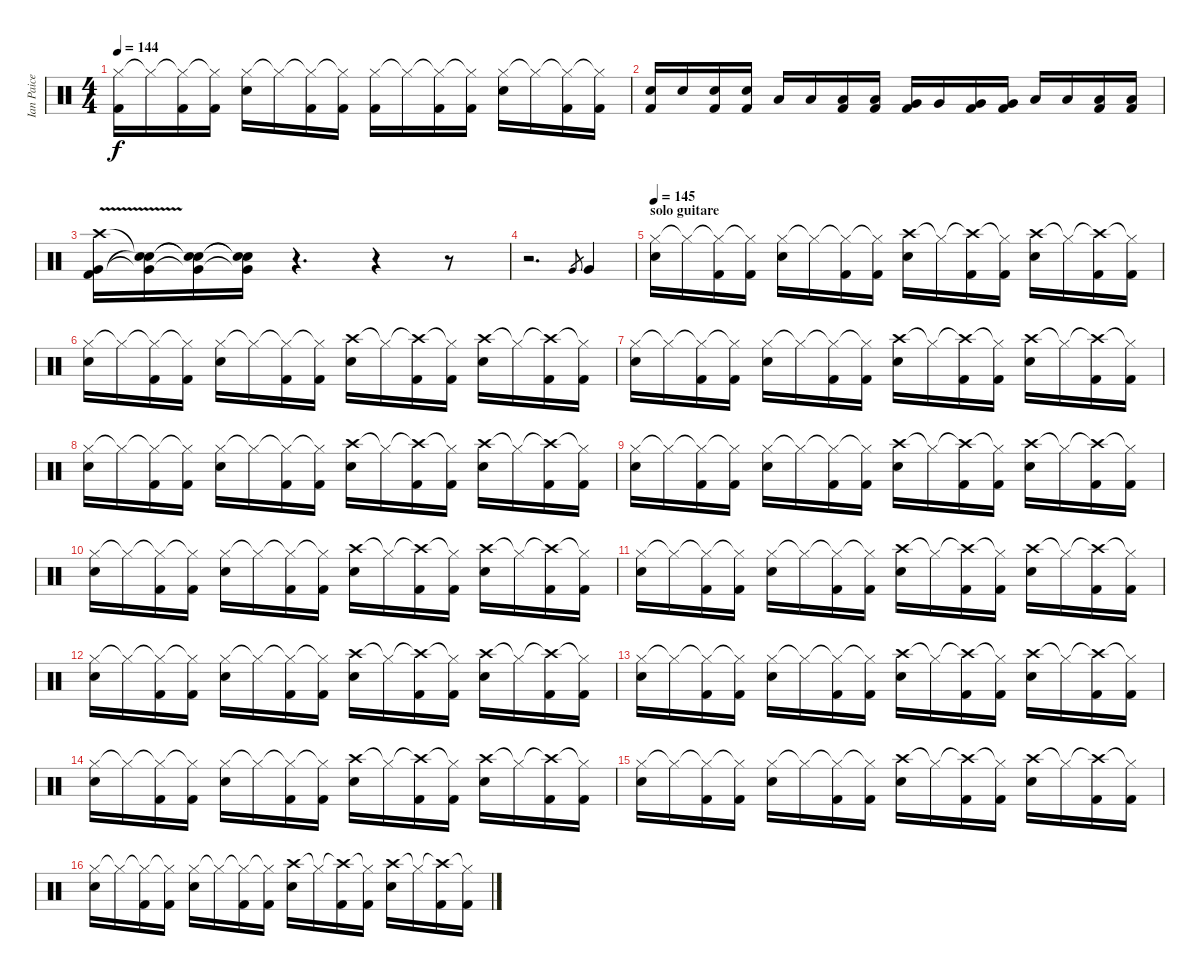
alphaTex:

\track ("Ian Paice" "Ian Paice") {instrument percussion}
\staff {score}
\articulation defaults
\ts (4 4)
\tempo 144
\clef neutral
\ks c
("Hi-Hat (closed)" "Kick (hit) 2").16{dy f} "Hi-Hat (closed)"{t}.16 ("Hi-Hat (closed)"{t} "Kick (hit) 2").16 ("Hi-Hat (closed)"{t} "Kick (hit) 2").16 ("Hi-Hat (closed)" "Snare (hit) 2").16 "Hi-Hat (closed)"{t}.16 ("Hi-Hat (closed)"{t} "Kick (hit) 2").16 ("Hi-Hat (closed)"{t} "Kick (hit) 2").16 ("Hi-Hat (closed)" "Kick (hit) 2").16 "Hi-Hat (closed)"{t}.16 ("Hi-Hat (closed)"{t} "Kick (hit) 2").16 ("Hi-Hat (closed)"{t} "Kick (hit) 2").16 ("Hi-Hat (closed)" "Snare (hit) 2").16 "Hi-Hat (closed)"{t}.16 ("Hi-Hat (closed)"{t} "Kick (hit) 2").16 ("Hi-Hat (closed)"{t} "Kick (hit) 2").16 |
("Snare (hit) 2" "Kick (hit) 2").16 "Snare (hit) 2".16 ("Snare (hit) 2" "Kick (hit) 2").16 ("Snare (hit) 2" "Kick (hit) 2").16 "Low Tom (hit)".16 "Low Tom (hit)".16 ("Low Tom (hit)" "Kick (hit) 2").16 ("Low Tom (hit)" "Kick (hit) 2").16 ("Very Low Tom (hit)" "Kick (hit) 2").16 "Very Low Tom (hit)".16 ("Very Low Tom (hit)" "Kick (hit) 2").16 ("Very Low Tom (hit)" "Kick (hit) 2").16 "Low Floor Tom (hit)".16 "Low Floor Tom (hit)".16 ("Low Floor Tom (hit)" "Kick (hit) 2").16 ("Low Floor Tom (hit)" "Kick (hit) 2").16 |
("Crash high (hit)"{v} "Very Low Tom (hit)"{v} "Kick (hit) 2").16 ("Snare (hit)"{t} "Very Low Tom (hit)"{t} "Snare (hit)"{t}).16 ("Snare (hit)"{t} "Very Low Tom (hit)"{t} "Snare (hit)"{t}).16 ("Snare (hit)"{t} "Very Low Tom (hit)"{t} "Snare (hit)"{t}).16 r.4{d} r.4 r.8 |
r.2{d} "Very Low Tom (hit)".8{gr} "Very Low Tom (hit)".4 |
\section ("" "solo guitare")
\tempo 145
("Hi-Hat (closed)" "Snare (hit) 2").16 "Hi-Hat (closed)"{t}.16 ("Hi-Hat (closed)"{t} "Kick (hit) 2").16 ("Hi-Hat (closed)"{t} "Kick (hit) 2").16 ("Hi-Hat (closed)" "Snare (hit) 2").16 "Hi-Hat (closed)"{t}.16 ("Hi-Hat (closed)"{t} "Kick (hit) 2").16 ("Hi-Hat (closed)"{t} "Kick (hit) 2").16 ("Crash high (hit)" "Snare (hit) 2").16 "Hi-Hat (closed)"{t}.16 ("Crash high (hit)"{t} "Kick (hit) 2").16 ("Hi-Hat (closed)"{t} "Kick (hit) 2").16 ("Crash high (hit)" "Snare (hit) 2").16 "Hi-Hat (closed)"{t}.16 ("Crash high (hit)"{t} "Kick (hit) 2").16 ("Hi-Hat (closed)"{t} "Kick (hit) 2").16 |
("Hi-Hat (closed)" "Snare (hit) 2").16 "Hi-Hat (closed)"{t}.16 ("Hi-Hat (closed)"{t} "Kick (hit) 2").16 ("Hi-Hat (closed)"{t} "Kick (hit) 2").16 ("Hi-Hat (closed)" "Snare (hit) 2").16 "Hi-Hat (closed)"{t}.16 ("Hi-Hat (closed)"{t} "Kick (hit) 2").16 ("Hi-Hat (closed)"{t} "Kick (hit) 2").16 ("Crash high (hit)" "Snare (hit) 2").16 "Hi-Hat (closed)"{t}.16 ("Crash high (hit)"{t} "Kick (hit) 2").16 ("Hi-Hat (closed)"{t} "Kick (hit) 2").16 ("Crash high (hit)" "Snare (hit) 2").16 "Hi-Hat (closed)"{t}.16 ("Crash high (hit)"{t} "Kick (hit) 2").16 ("Hi-Hat (closed)"{t} "Kick (hit) 2").16 |
("Hi-Hat (closed)" "Snare (hit) 2").16 "Hi-Hat (closed)"{t}.16 ("Hi-Hat (closed)"{t} "Kick (hit) 2").16 ("Hi-Hat (closed)"{t} "Kick (hit) 2").16 ("Hi-Hat (closed)" "Snare (hit) 2").16 "Hi-Hat (closed)"{t}.16 ("Hi-Hat (closed)"{t} "Kick (hit) 2").16 ("Hi-Hat (closed)"{t} "Kick (hit) 2").16 ("Crash high (hit)" "Snare (hit) 2").16 "Hi-Hat (closed)"{t}.16 ("Crash high (hit)"{t} "Kick (hit) 2").16 ("Hi-Hat (closed)"{t} "Kick (hit) 2").16 ("Crash high (hit)" "Snare (hit) 2").16 "Hi-Hat (closed)"{t}.16 ("Crash high (hit)"{t} "Kick (hit) 2").16 ("Hi-Hat (closed)"{t} "Kick (hit) 2").16 |
("Hi-Hat (closed)" "Snare (hit) 2").16 "Hi-Hat (closed)"{t}.16 ("Hi-Hat (closed)"{t} "Kick (hit) 2").16 ("Hi-Hat (closed)"{t} "Kick (hit) 2").16 ("Hi-Hat (closed)" "Snare (hit) 2").16 "Hi-Hat (closed)"{t}.16 ("Hi-Hat (closed)"{t} "Kick (hit) 2").16 ("Hi-Hat (closed)"{t} "Kick (hit) 2").16 ("Crash high (hit)" "Snare (hit) 2").16 "Hi-Hat (closed)"{t}.16 ("Crash high (hit)"{t} "Kick (hit) 2").16 ("Hi-Hat (closed)"{t} "Kick (hit) 2").16 ("Crash high (hit)" "Snare (hit) 2").16 "Hi-Hat (closed)"{t}.16 ("Crash high (hit)"{t} "Kick (hit) 2").16 ("Hi-Hat (closed)"{t} "Kick (hit) 2").16 |
("Hi-Hat (closed)" "Snare (hit) 2").16 "Hi-Hat (closed)"{t}.16 ("Hi-Hat (closed)"{t} "Kick (hit) 2").16 ("Hi-Hat (closed)"{t} "Kick (hit) 2").16 ("Hi-Hat (closed)" "Snare (hit) 2").16 "Hi-Hat (closed)"{t}.16 ("Hi-Hat (closed)"{t} "Kick (hit) 2").16 ("Hi-Hat (closed)"{t} "Kick (hit) 2").16 ("Crash high (hit)" "Snare (hit) 2").16 "Hi-Hat (closed)"{t}.16 ("Crash high (hit)"{t} "Kick (hit) 2").16 ("Hi-Hat (closed)"{t} "Kick (hit) 2").16 ("Crash high (hit)" "Snare (hit) 2").16 "Hi-Hat (closed)"{t}.16 ("Crash high (hit)"{t} "Kick (hit) 2").16 ("Hi-Hat (closed)"{t} "Kick (hit) 2").16 |
("Hi-Hat (closed)" "Snare (hit) 2").16 "Hi-Hat (closed)"{t}.16 ("Hi-Hat (closed)"{t} "Kick (hit) 2").16 ("Hi-Hat (closed)"{t} "Kick (hit) 2").16 ("Hi-Hat (closed)" "Snare (hit) 2").16 "Hi-Hat (closed)"{t}.16 ("Hi-Hat (closed)"{t} "Kick (hit) 2").16 ("Hi-Hat (closed)"{t} "Kick (hit) 2").16 ("Crash high (hit)" "Snare (hit) 2").16 "Hi-Hat (closed)"{t}.16 ("Crash high (hit)"{t} "Kick (hit) 2").16 ("Hi-Hat (closed)"{t} "Kick (hit) 2").16 ("Crash high (hit)" "Snare (hit) 2").16 "Hi-Hat (closed)"{t}.16 ("Crash high (hit)"{t} "Kick (hit) 2").16 ("Hi-Hat (closed)"{t} "Kick (hit) 2").16 |
("Hi-Hat (closed)" "Snare (hit) 2").16 "Hi-Hat (closed)"{t}.16 ("Hi-Hat (closed)"{t} "Kick (hit) 2").16 ("Hi-Hat (closed)"{t} "Kick (hit) 2").16 ("Hi-Hat (closed)" "Snare (hit) 2").16 "Hi-Hat (closed)"{t}.16 ("Hi-Hat (closed)"{t} "Kick (hit) 2").16 ("Hi-Hat (closed)"{t} "Kick (hit) 2").16 ("Crash high (hit)" "Snare (hit) 2").16 "Hi-Hat (closed)"{t}.16 ("Crash high (hit)"{t} "Kick (hit) 2").16 ("Hi-Hat (closed)"{t} "Kick (hit) 2").16 ("Crash high (hit)" "Snare (hit) 2").16 "Hi-Hat (closed)"{t}.16 ("Crash high (hit)"{t} "Kick (hit) 2").16 ("Hi-Hat (closed)"{t} "Kick (hit) 2").16 |
("Hi-Hat (closed)" "Snare (hit) 2").16 "Hi-Hat (closed)"{t}.16 ("Hi-Hat (closed)"{t} "Kick (hit) 2").16 ("Hi-Hat (closed)"{t} "Kick (hit) 2").16 ("Hi-Hat (closed)" "Snare (hit) 2").16 "Hi-Hat (closed)"{t}.16 ("Hi-Hat (closed)"{t} "Kick (hit) 2").16 ("Hi-Hat (closed)"{t} "Kick (hit) 2").16 ("Crash high (hit)" "Snare (hit) 2").16 "Hi-Hat (closed)"{t}.16 ("Crash high (hit)"{t} "Kick (hit) 2").16 ("Hi-Hat (closed)"{t} "Kick (hit) 2").16 ("Crash high (hit)" "Snare (hit) 2").16 "Hi-Hat (closed)"{t}.16 ("Crash high (hit)"{t} "Kick (hit) 2").16 ("Hi-Hat (closed)"{t} "Kick (hit) 2").16 |
("Hi-Hat (closed)" "Snare (hit) 2").16 "Hi-Hat (closed)"{t}.16 ("Hi-Hat (closed)"{t} "Kick (hit) 2").16 ("Hi-Hat (closed)"{t} "Kick (hit) 2").16 ("Hi-Hat (closed)" "Snare (hit) 2").16 "Hi-Hat (closed)"{t}.16 ("Hi-Hat (closed)"{t} "Kick (hit) 2").16 ("Hi-Hat (closed)"{t} "Kick (hit) 2").16 ("Crash high (hit)" "Snare (hit) 2").16 "Hi-Hat (closed)"{t}.16 ("Crash high (hit)"{t} "Kick (hit) 2").16 ("Hi-Hat (closed)"{t} "Kick (hit) 2").16 ("Crash high (hit)" "Snare (hit) 2").16 "Hi-Hat (closed)"{t}.16 ("Crash high (hit)"{t} "Kick (hit) 2").16 ("Hi-Hat (closed)"{t} "Kick (hit) 2").16 |
("Hi-Hat (closed)" "Snare (hit) 2").16 "Hi-Hat (closed)"{t}.16 ("Hi-Hat (closed)"{t} "Kick (hit) 2").16 ("Hi-Hat (closed)"{t} "Kick (hit) 2").16 ("Hi-Hat (closed)" "Snare (hit) 2").16 "Hi-Hat (closed)"{t}.16 ("Hi-Hat (closed)"{t} "Kick (hit) 2").16 ("Hi-Hat (closed)"{t} "Kick (hit) 2").16 ("Crash high (hit)" "Snare (hit) 2").16 "Hi-Hat (closed)"{t}.16 ("Crash high (hit)"{t} "Kick (hit) 2").16 ("Hi-Hat (closed)"{t} "Kick (hit) 2").16 ("Crash high (hit)" "Snare (hit) 2").16 "Hi-Hat (closed)"{t}.16 ("Crash high (hit)"{t} "Kick (hit) 2").16 ("Hi-Hat (closed)"{t} "Kick (hit) 2").16 |
("Hi-Hat (closed)" "Snare (hit) 2").16 "Hi-Hat (closed)"{t}.16 ("Hi-Hat (closed)"{t} "Kick (hit) 2").16 ("Hi-Hat (closed)"{t} "Kick (hit) 2").16 ("Hi-Hat (closed)" "Snare (hit) 2").16 "Hi-Hat (closed)"{t}.16 ("Hi-Hat (closed)"{t} "Kick (hit) 2").16 ("Hi-Hat (closed)"{t} "Kick (hit) 2").16 ("Crash high (hit)" "Snare (hit) 2").16 "Hi-Hat (closed)"{t}.16 ("Crash high (hit)"{t} "Kick (hit) 2").16 ("Hi-Hat (closed)"{t} "Kick (hit) 2").16 ("Crash high (hit)" "Snare (hit) 2").16 "Hi-Hat (closed)"{t}.16 ("Crash high (hit)"{t} "Kick (hit) 2").16 ("Hi-Hat (closed)"{t} "Kick (hit) 2").16 |
("Hi-Hat (closed)" "Snare (hit) 2").16 "Hi-Hat (closed)"{t}.16 ("Hi-Hat (closed)"{t} "Kick (hit) 2").16 ("Hi-Hat (closed)"{t} "Kick (hit) 2").16 ("Hi-Hat (closed)" "Snare (hit) 2").16 "Hi-Hat (closed)"{t}.16 ("Hi-Hat (closed)"{t} "Kick (hit) 2").16 ("Hi-Hat (closed)"{t} "Kick (hit) 2").16 ("Crash high (hit)" "Snare (hit) 2").16 "Hi-Hat (closed)"{t}.16 ("Crash high (hit)"{t} "Kick (hit) 2").16 ("Hi-Hat (closed)"{t} "Kick (hit) 2").16 ("Crash high (hit)" "Snare (hit) 2").16 "Hi-Hat (closed)"{t}.16 ("Crash high (hit)"{t} "Kick (hit) 2").16 ("Hi-Hat (closed)"{t} "Kick (hit) 2").16
